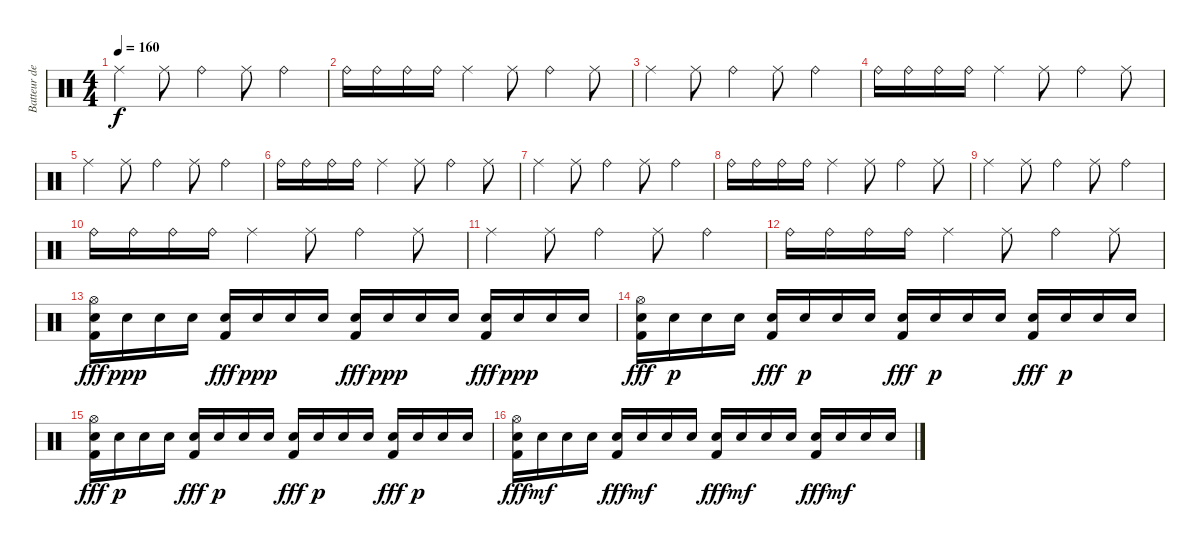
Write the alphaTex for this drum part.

\track ("Batteur de G.C" "Batteur de") {instrument percussion}
\staff {score}
\articulation defaults
\ts (4 4)
\tempo 160
\clef neutral
\ks c "Ride (middle)".4{dy f} "Ride (middle)".8 "Ride (bell)".4 "Ride (middle)".8 "Ride (bell)".4
|
"Ride (bell)".16 "Ride (bell)".16 "Ride (bell)".16 "Ride (bell)".16 "Ride (middle)".4 "Ride (middle)".8 "Ride (bell)".4 "Ride (middle)".8 |
"Ride (middle)".4 "Ride (middle)".8 "Ride (bell)".4 "Ride (middle)".8 "Ride (bell)".4 |
"Ride (bell)".16 "Ride (bell)".16 "Ride (bell)".16 "Ride (bell)".16 "Ride (middle)".4 "Ride (middle)".8 "Ride (bell)".4 "Ride (middle)".8 |
"Ride (middle)".4 "Ride (middle)".8 "Ride (bell)".4 "Ride (middle)".8 "Ride (bell)".4 |
"Ride (bell)".16 "Ride (bell)".16 "Ride (bell)".16 "Ride (bell)".16 "Ride (middle)".4 "Ride (middle)".8 "Ride (bell)".4 "Ride (middle)".8 |
"Ride (middle)".4 "Ride (middle)".8 "Ride (bell)".4 "Ride (middle)".8 "Ride (bell)".4 |
"Ride (bell)".16 "Ride (bell)".16 "Ride (bell)".16 "Ride (bell)".16 "Ride (middle)".4 "Ride (middle)".8 "Ride (bell)".4 "Ride (middle)".8 |
"Ride (middle)".4 "Ride (middle)".8 "Ride (bell)".4 "Ride (middle)".8 "Ride (bell)".4 |
"Ride (bell)".16 "Ride (bell)".16 "Ride (bell)".16 "Ride (bell)".16 "Ride (middle)".4 "Ride (middle)".8 "Ride (bell)".4 "Ride (middle)".8 |
"Ride (middle)".4 "Ride (middle)".8 "Ride (bell)".4 "Ride (middle)".8 "Ride (bell)".4 |
"Ride (bell)".16 "Ride (bell)".16 "Ride (bell)".16 "Ride (bell)".16 "Ride (middle)".4 "Ride (middle)".8 "Ride (bell)".4 "Ride (middle)".8 |
("Hi-Hat (open)" "Electric Snare (hit)" "Kick (hit) 2").16{dy fff} "Electric Snare (hit)".16{dy ppp} "Electric Snare (hit)".16 "Electric Snare (hit)".16 ("Electric Snare (hit)" "Kick (hit) 2").16{dy fff} "Electric Snare (hit)".16{dy ppp} "Electric Snare (hit)".16 "Electric Snare (hit)".16 ("Electric Snare (hit)" "Kick (hit) 2").16{dy fff} "Electric Snare (hit)".16{dy ppp} "Electric Snare (hit)".16 "Electric Snare (hit)".16 ("Electric Snare (hit)" "Kick (hit) 2").16{dy fff} "Electric Snare (hit)".16{dy ppp} "Electric Snare (hit)".16 "Electric Snare (hit)".16 |
("Hi-Hat (open)" "Electric Snare (hit)" "Kick (hit) 2").16{dy fff} "Electric Snare (hit)".16{dy p} "Electric Snare (hit)".16 "Electric Snare (hit)".16 ("Electric Snare (hit)" "Kick (hit) 2").16{dy fff} "Electric Snare (hit)".16{dy p} "Electric Snare (hit)".16 "Electric Snare (hit)".16 ("Electric Snare (hit)" "Kick (hit) 2").16{dy fff} "Electric Snare (hit)".16{dy p} "Electric Snare (hit)".16 "Electric Snare (hit)".16 ("Electric Snare (hit)" "Kick (hit) 2").16{dy fff} "Electric Snare (hit)".16{dy p} "Electric Snare (hit)".16 "Electric Snare (hit)".16 |
("Hi-Hat (open)" "Electric Snare (hit)" "Kick (hit) 2").16{dy fff} "Electric Snare (hit)".16{dy p} "Electric Snare (hit)".16 "Electric Snare (hit)".16 ("Electric Snare (hit)" "Kick (hit) 2").16{dy fff} "Electric Snare (hit)".16{dy p} "Electric Snare (hit)".16 "Electric Snare (hit)".16 ("Electric Snare (hit)" "Kick (hit) 2").16{dy fff} "Electric Snare (hit)".16{dy p} "Electric Snare (hit)".16 "Electric Snare (hit)".16 ("Electric Snare (hit)" "Kick (hit) 2").16{dy fff} "Electric Snare (hit)".16{dy p} "Electric Snare (hit)".16 "Electric Snare (hit)".16 |
("Hi-Hat (open)" "Electric Snare (hit)" "Kick (hit) 2").16{dy fff} "Electric Snare (hit)".16{dy mf} "Electric Snare (hit)".16 "Electric Snare (hit)".16 ("Electric Snare (hit)" "Kick (hit) 2").16{dy fff} "Electric Snare (hit)".16{dy mf} "Electric Snare (hit)".16 "Electric Snare (hit)".16 ("Electric Snare (hit)" "Kick (hit) 2").16{dy fff} "Electric Snare (hit)".16{dy mf} "Electric Snare (hit)".16 "Electric Snare (hit)".16 ("Electric Snare (hit)" "Kick (hit) 2").16{dy fff} "Electric Snare (hit)".16{dy mf} "Electric Snare (hit)".16 "Electric Snare (hit)".16
